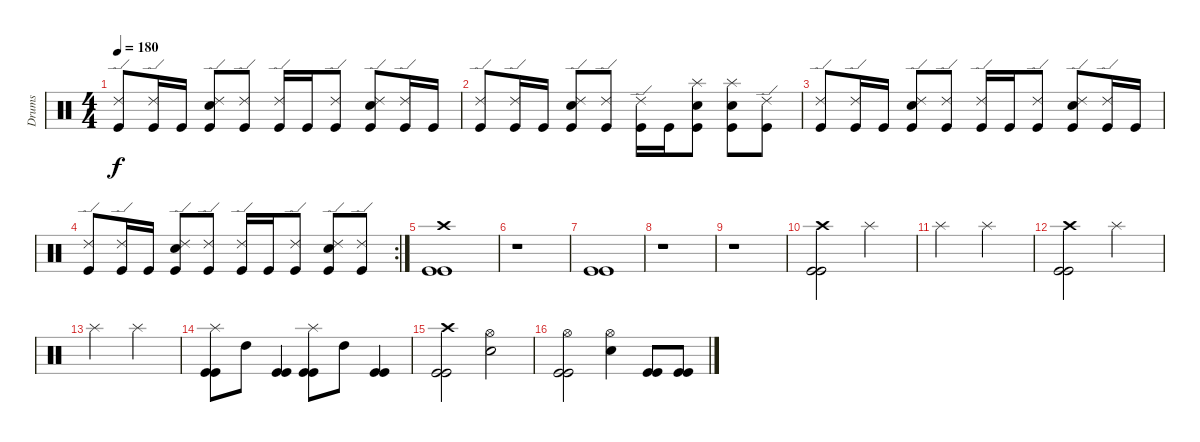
\track ("Drums" "Drums") {instrument percussion}
\staff {score}
\articulation defaults
\ts (4 4)
\tempo 180
\clef neutral
\ks c
("Ride (edge) 2" "Kick (hit)").8{dy f} ("Ride (edge) 2" "Kick (hit)").16 "Kick (hit)".16 ("Ride (edge) 2" "Snare (hit) 2" "Kick (hit)").8 ("Ride (edge) 2" "Kick (hit)").8 ("Ride (edge) 2" "Kick (hit)").16 "Kick (hit)".16 ("Ride (edge) 2" "Kick (hit)").8 ("Ride (edge) 2" "Snare (hit) 2" "Kick (hit)").8 ("Ride (edge) 2" "Kick (hit)").16 "Kick (hit)".16 |
("Ride (edge) 2" "Kick (hit)").8 ("Ride (edge) 2" "Kick (hit)").16 "Kick (hit)".16 ("Ride (edge) 2" "Snare (hit) 2" "Kick (hit)").8 ("Ride (edge) 2" "Kick (hit)").8 ("Ride (edge) 2" "Kick (hit)").16 "Kick (hit)".16 ("Splash (hit)" "Snare (hit) 2" "Kick (hit)").8 ("Splash (hit)" "Snare (hit) 2" "Kick (hit)").8 ("Ride (edge) 2" "Kick (hit)").8 |
("Ride (edge) 2" "Kick (hit)").8 ("Ride (edge) 2" "Kick (hit)").16 "Kick (hit)".16 ("Ride (edge) 2" "Snare (hit) 2" "Kick (hit)").8 ("Ride (edge) 2" "Kick (hit)").8 ("Ride (edge) 2" "Kick (hit)").16 "Kick (hit)".16 ("Ride (edge) 2" "Kick (hit)").8 ("Ride (edge) 2" "Snare (hit) 2" "Kick (hit)").8 ("Ride (edge) 2" "Kick (hit)").16 "Kick (hit)".16 |
\rc 2
("Ride (edge) 2" "Kick (hit)").8 ("Ride (edge) 2" "Kick (hit)").16 "Kick (hit)".16 ("Ride (edge) 2" "Snare (hit) 2" "Kick (hit)").8 ("Ride (edge) 2" "Kick (hit)").8 ("Ride (edge) 2" "Kick (hit)").16 "Kick (hit)".16 ("Ride (edge) 2" "Kick (hit)").8 ("Ride (edge) 2" "Snare (hit) 2" "Kick (hit)").8 ("Ride (edge) 2" "Kick (hit)").8 |
("Crash high (hit)" "Kick (hit)" "Kick (hit)").1 |
r.1 |
("Kick (hit)" "Kick (hit)").1 |
r.1 |
r.1 |
("Crash high (hit)" "Kick (hit)" "Kick (hit)").2 "Splash (hit)".2 |
"Splash (hit)".2 "Splash (hit)".2 |
("Crash high (hit)" "Kick (hit)" "Kick (hit)").2 "Splash (hit)".2 |
"Splash (hit)".2 "Splash (hit)".2 |
("Splash (hit)" "Kick (hit)" "Kick (hit)").8 "High Tom (hit)".8 ("Kick (hit)" "Kick (hit)").4 ("Splash (hit)" "Kick (hit)" "Kick (hit)").8 "High Tom (hit)".8 ("Kick (hit)" "Kick (hit)").4 |
("Crash high (hit)" "Kick (hit)" "Kick (hit)").2 ("Hi-Hat (open)" "Snare (hit) 2").2 |
("Hi-Hat (open)" "Kick (hit)" "Kick (hit)").2 ("Hi-Hat (open)" "Snare (hit) 2").4 ("Kick (hit)" "Kick (hit)").8 ("Kick (hit)" "Kick (hit)").8
